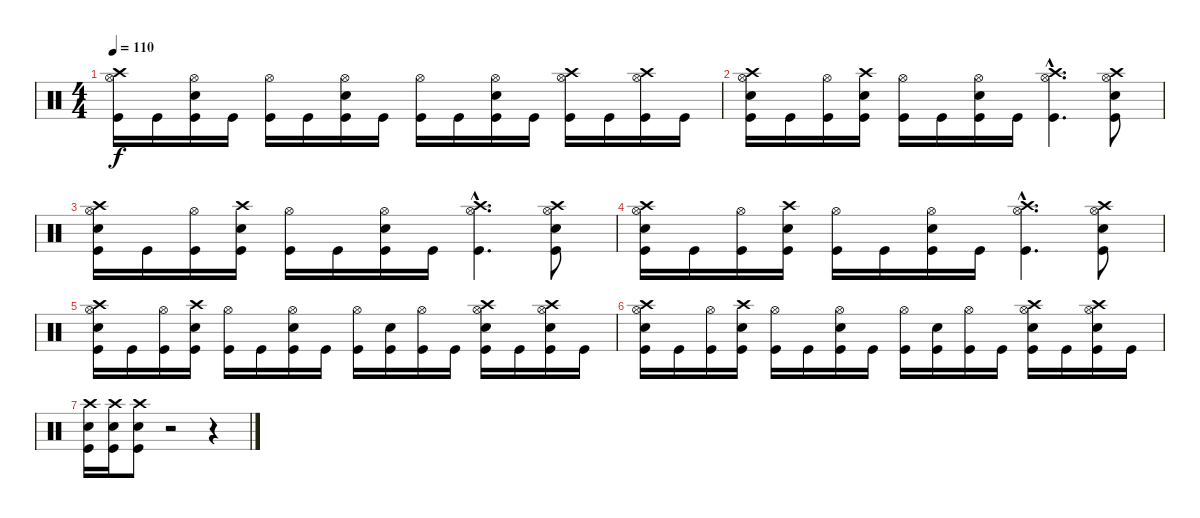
\track "" {instrument percussion}
\staff {score}
\articulation defaults
\ts (4 4)
\tempo 110
\clef neutral
\ks c
("Crash high (hit)" "Kick (hit)" "Hi-Hat (open)").16{dy f} "Kick (hit)".16 ("Kick (hit)" "Electric Snare (hit)" "Hi-Hat (open)").16 "Kick (hit)".16 ("Kick (hit)" "Hi-Hat (open)").16 "Kick (hit)".16 ("Kick (hit)" "Electric Snare (hit)" "Hi-Hat (open)").16 "Kick (hit)".16 ("Hi-Hat (open)" "Kick (hit)").16 "Kick (hit)".16 ("Kick (hit)" "Hi-Hat (open)" "Electric Snare (hit)").16 "Kick (hit)".16 ("Hi-Hat (open)" "Kick (hit)" "Crash high (hit)").16 "Kick (hit)".16 ("Kick (hit)" "Hi-Hat (open)" "Crash high (hit)").16 "Kick (hit)".16 |
("Crash high (hit)" "Electric Snare (hit)" "Kick (hit)" "Hi-Hat (open)").16 "Kick (hit)".16 ("Kick (hit)" "Hi-Hat (open)").16 ("Crash high (hit)" "Electric Snare (hit)" "Kick (hit)").16 ("Kick (hit)" "Hi-Hat (open)").16 "Kick (hit)".16 ("Electric Snare (hit)" "Kick (hit)" "Hi-Hat (open)").16 "Kick (hit)".16 ("Hi-Hat (open)" "Kick (hit)"{hac} "Crash high (hit)"{hac}).4{d} ("Crash high (hit)" "Electric Snare (hit)" "Kick (hit)" "Hi-Hat (open)").8 |
("Crash high (hit)" "Electric Snare (hit)" "Kick (hit)" "Hi-Hat (open)").16 "Kick (hit)".16 ("Kick (hit)" "Hi-Hat (open)").16 ("Crash high (hit)" "Electric Snare (hit)" "Kick (hit)").16 ("Kick (hit)" "Hi-Hat (open)").16 "Kick (hit)".16 ("Electric Snare (hit)" "Kick (hit)" "Hi-Hat (open)").16 "Kick (hit)".16 ("Hi-Hat (open)" "Kick (hit)"{hac} "Crash high (hit)"{hac}).4{d} ("Crash high (hit)" "Electric Snare (hit)" "Kick (hit)" "Hi-Hat (open)").8 |
("Crash high (hit)" "Electric Snare (hit)" "Kick (hit)" "Hi-Hat (open)").16 "Kick (hit)".16 ("Kick (hit)" "Hi-Hat (open)").16 ("Crash high (hit)" "Electric Snare (hit)" "Kick (hit)").16 ("Kick (hit)" "Hi-Hat (open)").16 "Kick (hit)".16 ("Electric Snare (hit)" "Kick (hit)" "Hi-Hat (open)").16 "Kick (hit)".16 ("Hi-Hat (open)" "Kick (hit)"{hac} "Crash high (hit)"{hac}).4{d} ("Crash high (hit)" "Electric Snare (hit)" "Kick (hit)" "Hi-Hat (open)").8 |
("Crash high (hit)" "Electric Snare (hit)" "Kick (hit)" "Hi-Hat (open)").16 "Kick (hit)".16 ("Kick (hit)" "Hi-Hat (open)").16 ("Crash high (hit)" "Electric Snare (hit)" "Kick (hit)").16 ("Kick (hit)" "Hi-Hat (open)").16 "Kick (hit)".16 ("Electric Snare (hit)" "Kick (hit)" "Hi-Hat (open)").16 "Kick (hit)".16 ("Hi-Hat (open)" "Kick (hit)").16 ("Electric Snare (hit)" "Kick (hit)").16 ("Kick (hit)" "Hi-Hat (open)").16 "Kick (hit)".16 ("Crash high (hit)" "Electric Snare (hit)" "Hi-Hat (open)" "Kick (hit)").16 "Kick (hit)".16 ("Crash high (hit)" "Electric Snare (hit)" "Kick (hit)" "Hi-Hat (open)").16 "Kick (hit)".16 |
("Crash high (hit)" "Electric Snare (hit)" "Kick (hit)" "Hi-Hat (open)").16 "Kick (hit)".16 ("Kick (hit)" "Hi-Hat (open)").16 ("Crash high (hit)" "Electric Snare (hit)" "Kick (hit)").16 ("Kick (hit)" "Hi-Hat (open)").16 "Kick (hit)".16 ("Electric Snare (hit)" "Kick (hit)" "Hi-Hat (open)").16 "Kick (hit)".16 ("Hi-Hat (open)" "Kick (hit)").16 ("Electric Snare (hit)" "Kick (hit)").16 ("Kick (hit)" "Hi-Hat (open)").16 "Kick (hit)".16 ("Crash high (hit)" "Electric Snare (hit)" "Hi-Hat (open)" "Kick (hit)").16 "Kick (hit)".16 ("Crash high (hit)" "Electric Snare (hit)" "Kick (hit)" "Hi-Hat (open)").16 "Kick (hit)".16 |
("Snare (hit) 2" "Kick (hit)" "Crash high (hit)").16 ("Snare (hit) 2" "Kick (hit)" "Crash high (hit)").16 ("Snare (hit) 2" "Kick (hit)" "Crash high (hit)").8 r.2 r.4
